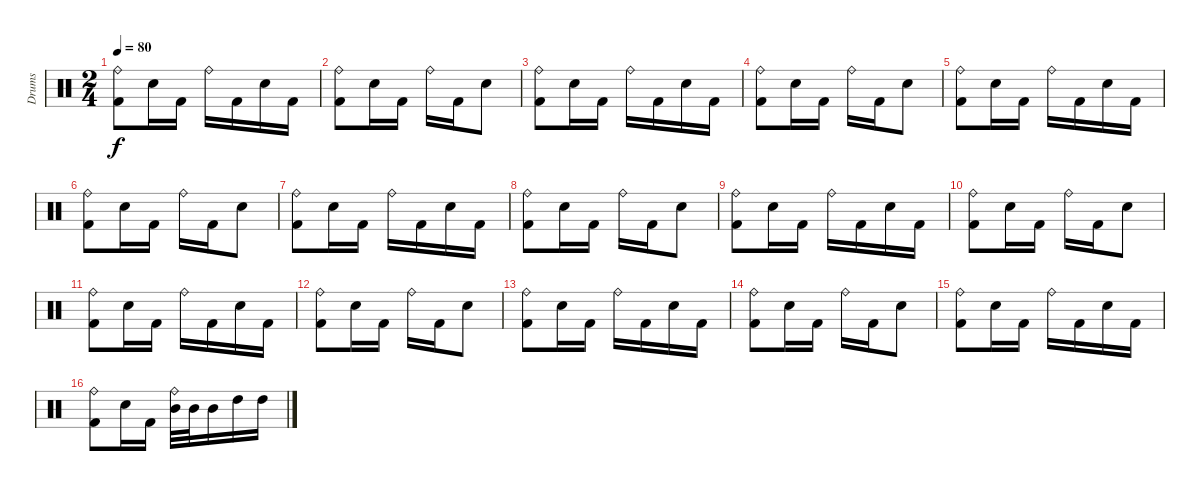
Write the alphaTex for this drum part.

\track ("Drums" "Drums") {instrument percussion}
\staff {score}
\articulation defaults
\ts (2 4)
\tempo 80
\clef neutral
\ks aminor
("Kick (hit) 2" "Ride (bell)").8{dy f} "Electric Snare (hit)".16 "Kick (hit) 2".16 "Ride (bell)".16 "Kick (hit) 2".16 "Electric Snare (hit)".16 "Kick (hit) 2".16 |
("Kick (hit) 2" "Ride (bell)").8 "Electric Snare (hit)".16 "Kick (hit) 2".16 "Ride (bell)".16 "Kick (hit) 2".16 "Electric Snare (hit)".8 |
("Kick (hit) 2" "Ride (bell)").8 "Electric Snare (hit)".16 "Kick (hit) 2".16 "Ride (bell)".16 "Kick (hit) 2".16 "Electric Snare (hit)".16 "Kick (hit) 2".16 |
("Kick (hit) 2" "Ride (bell)").8 "Electric Snare (hit)".16 "Kick (hit) 2".16 "Ride (bell)".16 "Kick (hit) 2".16 "Electric Snare (hit)".8 |
("Kick (hit) 2" "Ride (bell)").8 "Electric Snare (hit)".16 "Kick (hit) 2".16 "Ride (bell)".16 "Kick (hit) 2".16 "Electric Snare (hit)".16 "Kick (hit) 2".16 |
("Kick (hit) 2" "Ride (bell)").8 "Electric Snare (hit)".16 "Kick (hit) 2".16 "Ride (bell)".16 "Kick (hit) 2".16 "Electric Snare (hit)".8 |
("Kick (hit) 2" "Ride (bell)").8 "Electric Snare (hit)".16 "Kick (hit) 2".16 "Ride (bell)".16 "Kick (hit) 2".16 "Electric Snare (hit)".16 "Kick (hit) 2".16 |
("Kick (hit) 2" "Ride (bell)").8 "Electric Snare (hit)".16 "Kick (hit) 2".16 "Ride (bell)".16 "Kick (hit) 2".16 "Electric Snare (hit)".8 |
("Kick (hit) 2" "Ride (bell)").8 "Electric Snare (hit)".16 "Kick (hit) 2".16 "Ride (bell)".16 "Kick (hit) 2".16 "Electric Snare (hit)".16 "Kick (hit) 2".16 |
("Kick (hit) 2" "Ride (bell)").8 "Electric Snare (hit)".16 "Kick (hit) 2".16 "Ride (bell)".16 "Kick (hit) 2".16 "Electric Snare (hit)".8 |
("Kick (hit) 2" "Ride (bell)").8 "Electric Snare (hit)".16 "Kick (hit) 2".16 "Ride (bell)".16 "Kick (hit) 2".16 "Electric Snare (hit)".16 "Kick (hit) 2".16 |
("Kick (hit) 2" "Ride (bell)").8 "Electric Snare (hit)".16 "Kick (hit) 2".16 "Ride (bell)".16 "Kick (hit) 2".16 "Electric Snare (hit)".8 |
("Kick (hit) 2" "Ride (bell)").8 "Electric Snare (hit)".16 "Kick (hit) 2".16 "Ride (bell)".16 "Kick (hit) 2".16 "Electric Snare (hit)".16 "Kick (hit) 2".16 |
("Kick (hit) 2" "Ride (bell)").8 "Electric Snare (hit)".16 "Kick (hit) 2".16 "Ride (bell)".16 "Kick (hit) 2".16 "Electric Snare (hit)".8 |
("Kick (hit) 2" "Ride (bell)").8 "Electric Snare (hit)".16 "Kick (hit) 2".16 "Ride (bell)".16 "Kick (hit) 2".16 "Electric Snare (hit)".16 "Kick (hit) 2".16 |
("Kick (hit) 2" "Ride (bell)").8 "Electric Snare (hit)".16 "Kick (hit) 2".16 ("Mid Tom (hit)" "Ride (bell)").32 "Mid Tom (hit)".32 "Mid Tom (hit)".16 "High Tom (hit)".16 "High Tom (hit)".16
